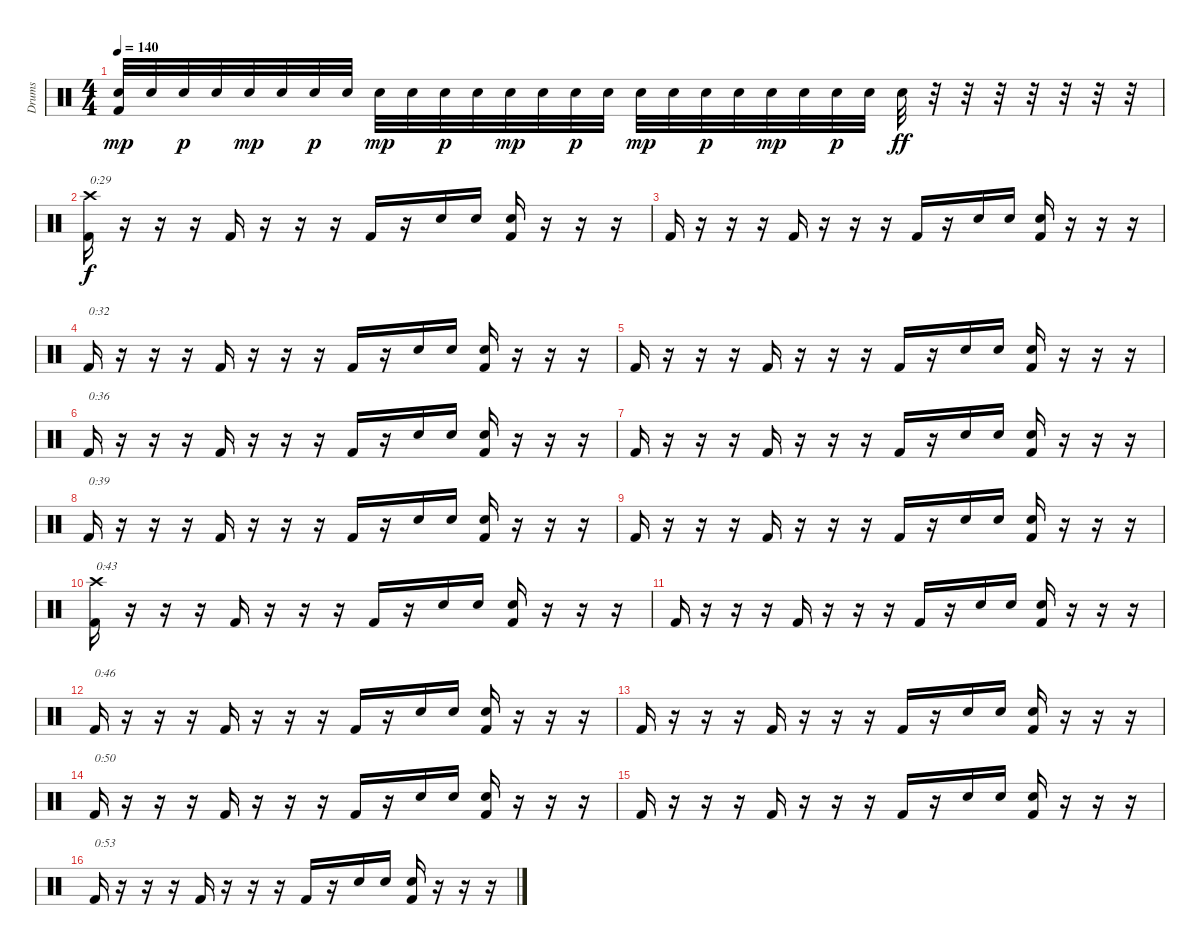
\track ("Drums" "Drums") {instrument percussion}
\staff {score}
\articulation defaults
\ts (4 4)
\tempo 140
\clef neutral
\ks c
("Snare (hit) 2" "Kick (hit) 2").32{dy mp} "Snare (hit) 2".32 "Snare (hit) 2".32{dy p} "Snare (hit) 2".32 "Snare (hit) 2".32{dy mp} "Snare (hit) 2".32 "Snare (hit) 2".32{dy p} "Snare (hit) 2".32 "Snare (hit) 2".32{dy mp} "Snare (hit) 2".32 "Snare (hit) 2".32{dy p} "Snare (hit) 2".32 "Snare (hit) 2".32{dy mp} "Snare (hit) 2".32 "Snare (hit) 2".32{dy p} "Snare (hit) 2".32 "Snare (hit) 2".32{dy mp} "Snare (hit) 2".32 "Snare (hit) 2".32{dy p} "Snare (hit) 2".32 "Snare (hit) 2".32{dy mp} "Snare (hit) 2".32 "Snare (hit) 2".32{dy p} "Snare (hit) 2".32 "Snare (hit) 2".32{dy ff} r.32 r.32 r.32 r.32 r.32 r.32 r.32 |
("Crash high (hit)" "Kick (hit) 2").16{txt "0:29" dy f} r.16 r.16 r.16 "Kick (hit) 2".16 r.16 r.16 r.16 "Kick (hit) 2".16 r.16 "Snare (hit) 2".16 "Snare (hit) 2".16 ("Snare (hit) 2" "Kick (hit) 2").16 r.16 r.16 r.16 |
"Kick (hit) 2".16 r.16 r.16 r.16 "Kick (hit) 2".16 r.16 r.16 r.16 "Kick (hit) 2".16 r.16 "Snare (hit) 2".16 "Snare (hit) 2".16 ("Snare (hit) 2" "Kick (hit) 2").16 r.16 r.16 r.16 |
"Kick (hit) 2".16{txt "0:32"} r.16 r.16 r.16 "Kick (hit) 2".16 r.16 r.16 r.16 "Kick (hit) 2".16 r.16 "Snare (hit) 2".16 "Snare (hit) 2".16 ("Snare (hit) 2" "Kick (hit) 2").16 r.16 r.16 r.16 |
"Kick (hit) 2".16 r.16 r.16 r.16 "Kick (hit) 2".16 r.16 r.16 r.16 "Kick (hit) 2".16 r.16 "Snare (hit) 2".16 "Snare (hit) 2".16 ("Snare (hit) 2" "Kick (hit) 2").16 r.16 r.16 r.16 |
"Kick (hit) 2".16{txt "0:36"} r.16 r.16 r.16 "Kick (hit) 2".16 r.16 r.16 r.16 "Kick (hit) 2".16 r.16 "Snare (hit) 2".16 "Snare (hit) 2".16 ("Snare (hit) 2" "Kick (hit) 2").16 r.16 r.16 r.16 |
"Kick (hit) 2".16 r.16 r.16 r.16 "Kick (hit) 2".16 r.16 r.16 r.16 "Kick (hit) 2".16 r.16 "Snare (hit) 2".16 "Snare (hit) 2".16 ("Snare (hit) 2" "Kick (hit) 2").16 r.16 r.16 r.16 |
"Kick (hit) 2".16{txt "0:39"} r.16 r.16 r.16 "Kick (hit) 2".16 r.16 r.16 r.16 "Kick (hit) 2".16 r.16 "Snare (hit) 2".16 "Snare (hit) 2".16 ("Snare (hit) 2" "Kick (hit) 2").16 r.16 r.16 r.16 |
"Kick (hit) 2".16 r.16 r.16 r.16 "Kick (hit) 2".16 r.16 r.16 r.16 "Kick (hit) 2".16 r.16 "Snare (hit) 2".16 "Snare (hit) 2".16 ("Snare (hit) 2" "Kick (hit) 2").16 r.16 r.16 r.16 |
("Crash high (hit)" "Kick (hit) 2").16{txt "0:43"} r.16 r.16 r.16 "Kick (hit) 2".16 r.16 r.16 r.16 "Kick (hit) 2".16 r.16 "Snare (hit) 2".16 "Snare (hit) 2".16 ("Snare (hit) 2" "Kick (hit) 2").16 r.16 r.16 r.16 |
"Kick (hit) 2".16 r.16 r.16 r.16 "Kick (hit) 2".16 r.16 r.16 r.16 "Kick (hit) 2".16 r.16 "Snare (hit) 2".16 "Snare (hit) 2".16 ("Snare (hit) 2" "Kick (hit) 2").16 r.16 r.16 r.16 |
"Kick (hit) 2".16{txt "0:46"} r.16 r.16 r.16 "Kick (hit) 2".16 r.16 r.16 r.16 "Kick (hit) 2".16 r.16 "Snare (hit) 2".16 "Snare (hit) 2".16 ("Snare (hit) 2" "Kick (hit) 2").16 r.16 r.16 r.16 |
"Kick (hit) 2".16 r.16 r.16 r.16 "Kick (hit) 2".16 r.16 r.16 r.16 "Kick (hit) 2".16 r.16 "Snare (hit) 2".16 "Snare (hit) 2".16 ("Snare (hit) 2" "Kick (hit) 2").16 r.16 r.16 r.16 |
"Kick (hit) 2".16{txt "0:50"} r.16 r.16 r.16 "Kick (hit) 2".16 r.16 r.16 r.16 "Kick (hit) 2".16 r.16 "Snare (hit) 2".16 "Snare (hit) 2".16 ("Snare (hit) 2" "Kick (hit) 2").16 r.16 r.16 r.16 |
"Kick (hit) 2".16 r.16 r.16 r.16 "Kick (hit) 2".16 r.16 r.16 r.16 "Kick (hit) 2".16 r.16 "Snare (hit) 2".16 "Snare (hit) 2".16 ("Snare (hit) 2" "Kick (hit) 2").16 r.16 r.16 r.16 |
"Kick (hit) 2".16{txt "0:53"} r.16 r.16 r.16 "Kick (hit) 2".16 r.16 r.16 r.16 "Kick (hit) 2".16 r.16 "Snare (hit) 2".16 "Snare (hit) 2".16 ("Snare (hit) 2" "Kick (hit) 2").16 r.16 r.16 r.16
